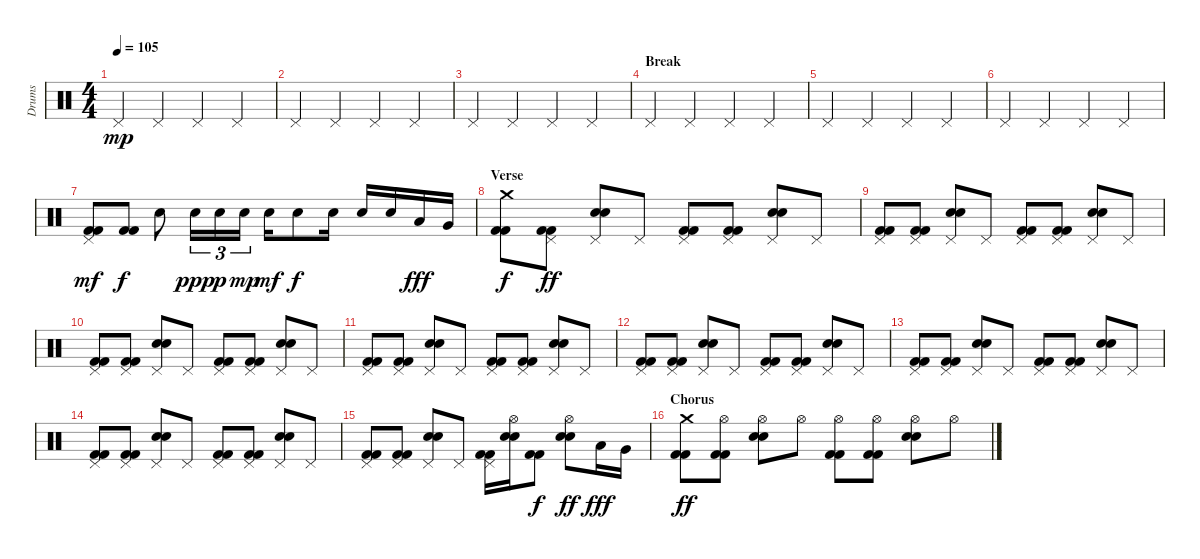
\track ("Drums" "Drums") {instrument percussion}
\staff {score}
\articulation defaults
\ts (4 4)
\tempo 105
\clef neutral
\ks c "Pedal Hi-Hat (hit)".4{dy mp} "Pedal Hi-Hat (hit)".4 "Pedal Hi-Hat (hit)".4 "Pedal Hi-Hat (hit)".4
|
"Pedal Hi-Hat (hit)".4 "Pedal Hi-Hat (hit)".4 "Pedal Hi-Hat (hit)".4 "Pedal Hi-Hat (hit)".4 |
"Pedal Hi-Hat (hit)".4 "Pedal Hi-Hat (hit)".4 "Pedal Hi-Hat (hit)".4 "Pedal Hi-Hat (hit)".4 |
\section ("" "Break")
"Pedal Hi-Hat (hit)".4 "Pedal Hi-Hat (hit)".4 "Pedal Hi-Hat (hit)".4 "Pedal Hi-Hat (hit)".4 |
"Pedal Hi-Hat (hit)".4 "Pedal Hi-Hat (hit)".4 "Pedal Hi-Hat (hit)".4 "Pedal Hi-Hat (hit)".4 |
"Pedal Hi-Hat (hit)".4 "Pedal Hi-Hat (hit)".4 "Pedal Hi-Hat (hit)".4 "Pedal Hi-Hat (hit)".4 |
("Pedal Hi-Hat (hit)" "Kick (hit) 2" "Kick (hit) 2").8{dy mf} ("Kick (hit) 2" "Kick (hit) 2").8{dy f} "Electric Snare (hit)".8 "Electric Snare (hit)".16{tu (3 2) dy ppp} "Electric Snare (hit)".16{tu (3 2) dy p} "Electric Snare (hit)".16{tu (3 2) dy mp} "Electric Snare (hit)".16{dy mf} "Electric Snare (hit)".8{dy f} "Electric Snare (hit)".16 "Electric Snare (hit)".16 "Electric Snare (hit)".16 "Low Tom (hit)".16{dy fff} "Very Low Tom (hit)".16 |
\section ("" "Verse")
("Crash medium (hit)" "Kick (hit) 2" "Kick (hit) 2").8{dy f} ("Pedal Hi-Hat (hit)" "Kick (hit) 2" "Kick (hit) 2").8{dy ff} ("Pedal Hi-Hat (hit)" "Electric Snare (hit)" "Snare (hit) 2").8 "Pedal Hi-Hat (hit)".8 ("Pedal Hi-Hat (hit)" "Kick (hit) 2" "Kick (hit) 2").8 ("Pedal Hi-Hat (hit)" "Kick (hit) 2" "Kick (hit) 2").8 ("Pedal Hi-Hat (hit)" "Electric Snare (hit)" "Snare (hit) 2").8 "Pedal Hi-Hat (hit)".8 |
("Pedal Hi-Hat (hit)" "Kick (hit) 2" "Kick (hit) 2").8 ("Pedal Hi-Hat (hit)" "Kick (hit) 2" "Kick (hit) 2").8 ("Pedal Hi-Hat (hit)" "Electric Snare (hit)" "Snare (hit) 2").8 "Pedal Hi-Hat (hit)".8 ("Pedal Hi-Hat (hit)" "Kick (hit) 2" "Kick (hit) 2").8 ("Pedal Hi-Hat (hit)" "Kick (hit) 2" "Kick (hit) 2").8 ("Pedal Hi-Hat (hit)" "Electric Snare (hit)" "Snare (hit) 2").8 "Pedal Hi-Hat (hit)".8 |
("Pedal Hi-Hat (hit)" "Kick (hit) 2" "Kick (hit) 2").8 ("Pedal Hi-Hat (hit)" "Kick (hit) 2" "Kick (hit) 2").8 ("Pedal Hi-Hat (hit)" "Electric Snare (hit)" "Snare (hit) 2").8 "Pedal Hi-Hat (hit)".8 ("Pedal Hi-Hat (hit)" "Kick (hit) 2" "Kick (hit) 2").8 ("Pedal Hi-Hat (hit)" "Kick (hit) 2" "Kick (hit) 2").8 ("Pedal Hi-Hat (hit)" "Electric Snare (hit)" "Snare (hit) 2").8 "Pedal Hi-Hat (hit)".8 |
("Pedal Hi-Hat (hit)" "Kick (hit) 2" "Kick (hit) 2").8 ("Pedal Hi-Hat (hit)" "Kick (hit) 2" "Kick (hit) 2").8 ("Pedal Hi-Hat (hit)" "Electric Snare (hit)" "Snare (hit) 2").8 "Pedal Hi-Hat (hit)".8 ("Pedal Hi-Hat (hit)" "Kick (hit) 2" "Kick (hit) 2").8 ("Pedal Hi-Hat (hit)" "Kick (hit) 2" "Kick (hit) 2").8 ("Pedal Hi-Hat (hit)" "Electric Snare (hit)" "Snare (hit) 2").8 "Pedal Hi-Hat (hit)".8 |
("Pedal Hi-Hat (hit)" "Kick (hit) 2" "Kick (hit) 2").8 ("Pedal Hi-Hat (hit)" "Kick (hit) 2" "Kick (hit) 2").8 ("Pedal Hi-Hat (hit)" "Electric Snare (hit)" "Snare (hit) 2").8 "Pedal Hi-Hat (hit)".8 ("Pedal Hi-Hat (hit)" "Kick (hit) 2" "Kick (hit) 2").8 ("Pedal Hi-Hat (hit)" "Kick (hit) 2" "Kick (hit) 2").8 ("Pedal Hi-Hat (hit)" "Electric Snare (hit)" "Snare (hit) 2").8 "Pedal Hi-Hat (hit)".8 |
("Pedal Hi-Hat (hit)" "Kick (hit) 2" "Kick (hit) 2").8 ("Pedal Hi-Hat (hit)" "Kick (hit) 2" "Kick (hit) 2").8 ("Pedal Hi-Hat (hit)" "Electric Snare (hit)" "Snare (hit) 2").8 "Pedal Hi-Hat (hit)".8 ("Pedal Hi-Hat (hit)" "Kick (hit) 2" "Kick (hit) 2").8 ("Pedal Hi-Hat (hit)" "Kick (hit) 2" "Kick (hit) 2").8 ("Pedal Hi-Hat (hit)" "Electric Snare (hit)" "Snare (hit) 2").8 "Pedal Hi-Hat (hit)".8 |
("Pedal Hi-Hat (hit)" "Kick (hit) 2" "Kick (hit) 2").8 ("Pedal Hi-Hat (hit)" "Kick (hit) 2" "Kick (hit) 2").8 ("Pedal Hi-Hat (hit)" "Electric Snare (hit)" "Snare (hit) 2").8 "Pedal Hi-Hat (hit)".8 ("Pedal Hi-Hat (hit)" "Kick (hit) 2" "Kick (hit) 2").8 ("Pedal Hi-Hat (hit)" "Kick (hit) 2" "Kick (hit) 2").8 ("Pedal Hi-Hat (hit)" "Electric Snare (hit)" "Snare (hit) 2").8 "Pedal Hi-Hat (hit)".8 |
("Pedal Hi-Hat (hit)" "Kick (hit) 2" "Kick (hit) 2").8 ("Pedal Hi-Hat (hit)" "Kick (hit) 2" "Kick (hit) 2").8 ("Pedal Hi-Hat (hit)" "Electric Snare (hit)" "Snare (hit) 2").8 "Pedal Hi-Hat (hit)".8 ("Pedal Hi-Hat (hit)" "Kick (hit) 2" "Kick (hit) 2").16 ("Hi-Hat (open)" "Electric Snare (hit)" "Snare (hit) 2").16 ("Kick (hit) 2" "Kick (hit) 2").8{dy f} ("Hi-Hat (open)" "Electric Snare (hit)" "Snare (hit) 2").8{dy ff} "Low Tom (hit)".16{dy fff} "Very Low Tom (hit)".16 |
\section ("" "Chorus")
("Crash medium (hit)" "Kick (hit) 2" "Kick (hit) 2").8{dy ff} ("Hi-Hat (open)" "Kick (hit) 2" "Kick (hit) 2").8 ("Hi-Hat (open)" "Electric Snare (hit)" "Snare (hit) 2").8 "Hi-Hat (open)".8 ("Hi-Hat (open)" "Kick (hit) 2" "Kick (hit) 2").8 ("Hi-Hat (open)" "Kick (hit) 2" "Kick (hit) 2").8 ("Hi-Hat (open)" "Electric Snare (hit)" "Snare (hit) 2").8 "Hi-Hat (open)".8
